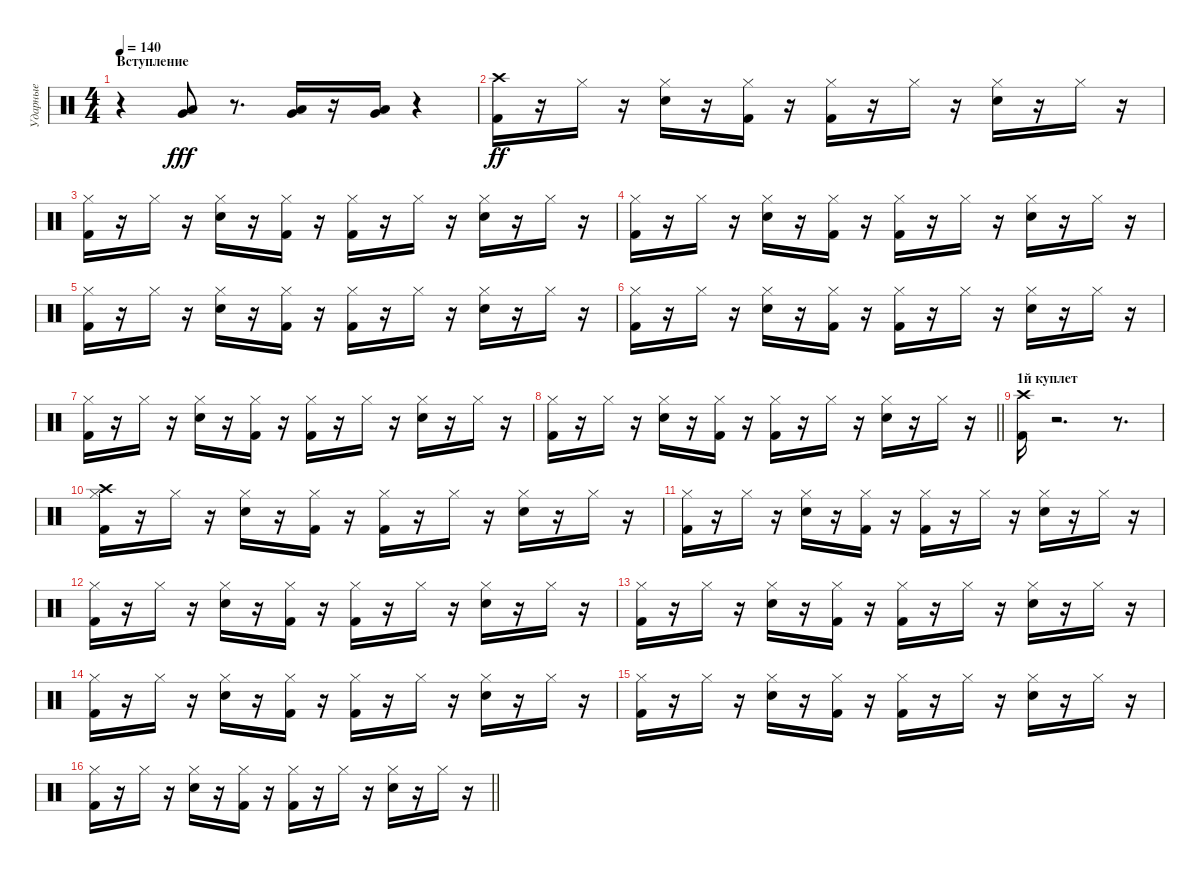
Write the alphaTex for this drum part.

\track ("Ударные" "Ударные") {instrument percussion}
\staff {score}
\articulation defaults
\ts (4 4)
\section ("" "Вступление")
\tempo 140
\clef neutral
\ks c
r.4{dy fff} ("Very Low Tom (hit)" "Low Floor Tom (hit)").8 r.8{d} ("Very Low Tom (hit)" "Low Floor Tom (hit)").16 r.16 ("Very Low Tom (hit)" "Low Floor Tom (hit)").16 r.4 |
("Crash high (hit)" "Kick (hit) 2").16{dy ff} r.16 "Hi-Hat (closed)".16 r.16 ("Hi-Hat (closed)" "Snare (hit) 2").16 r.16 ("Hi-Hat (closed)" "Kick (hit) 2").16 r.16 ("Hi-Hat (closed)" "Kick (hit) 2").16 r.16 "Hi-Hat (closed)".16 r.16 ("Hi-Hat (closed)" "Snare (hit) 2").16 r.16 "Hi-Hat (closed)".16 r.16 |
("Hi-Hat (closed)" "Kick (hit) 2").16 r.16 "Hi-Hat (closed)".16 r.16 ("Hi-Hat (closed)" "Snare (hit) 2").16 r.16 ("Hi-Hat (closed)" "Kick (hit) 2").16 r.16 ("Hi-Hat (closed)" "Kick (hit) 2").16 r.16 "Hi-Hat (closed)".16 r.16 ("Hi-Hat (closed)" "Snare (hit) 2").16 r.16 "Hi-Hat (closed)".16 r.16 |
("Hi-Hat (closed)" "Kick (hit) 2").16 r.16 "Hi-Hat (closed)".16 r.16 ("Hi-Hat (closed)" "Snare (hit) 2").16 r.16 ("Hi-Hat (closed)" "Kick (hit) 2").16 r.16 ("Hi-Hat (closed)" "Kick (hit) 2").16 r.16 "Hi-Hat (closed)".16 r.16 ("Hi-Hat (closed)" "Snare (hit) 2").16 r.16 "Hi-Hat (closed)".16 r.16 |
("Hi-Hat (closed)" "Kick (hit) 2").16 r.16 "Hi-Hat (closed)".16 r.16 ("Hi-Hat (closed)" "Snare (hit) 2").16 r.16 ("Hi-Hat (closed)" "Kick (hit) 2").16 r.16 ("Hi-Hat (closed)" "Kick (hit) 2").16 r.16 "Hi-Hat (closed)".16 r.16 ("Hi-Hat (closed)" "Snare (hit) 2").16 r.16 "Hi-Hat (closed)".16 r.16 |
("Hi-Hat (closed)" "Kick (hit) 2").16 r.16 "Hi-Hat (closed)".16 r.16 ("Hi-Hat (closed)" "Snare (hit) 2").16 r.16 ("Hi-Hat (closed)" "Kick (hit) 2").16 r.16 ("Hi-Hat (closed)" "Kick (hit) 2").16 r.16 "Hi-Hat (closed)".16 r.16 ("Hi-Hat (closed)" "Snare (hit) 2").16 r.16 "Hi-Hat (closed)".16 r.16 |
("Hi-Hat (closed)" "Kick (hit) 2").16 r.16 "Hi-Hat (closed)".16 r.16 ("Hi-Hat (closed)" "Snare (hit) 2").16 r.16 ("Hi-Hat (closed)" "Kick (hit) 2").16 r.16 ("Hi-Hat (closed)" "Kick (hit) 2").16 r.16 "Hi-Hat (closed)".16 r.16 ("Hi-Hat (closed)" "Snare (hit) 2").16 r.16 "Hi-Hat (closed)".16 r.16 |
\barLineRight lightlight
("Hi-Hat (closed)" "Kick (hit) 2").16 r.16 "Hi-Hat (closed)".16 r.16 ("Hi-Hat (closed)" "Snare (hit) 2").16 r.16 ("Hi-Hat (closed)" "Kick (hit) 2").16 r.16 ("Hi-Hat (closed)" "Kick (hit) 2").16 r.16 "Hi-Hat (closed)".16 r.16 ("Hi-Hat (closed)" "Snare (hit) 2").16 r.16 "Hi-Hat (closed)".16 r.16 |
\section ("" "1й куплет")
("Crash high (hit)" "Kick (hit) 2").16 r.2{d} r.8{d} |
("Hi-Hat (closed)" "Kick (hit) 2" "Crash high (hit)").16 r.16 "Hi-Hat (closed)".16 r.16 ("Hi-Hat (closed)" "Snare (hit) 2").16 r.16 ("Hi-Hat (closed)" "Kick (hit) 2").16 r.16 ("Hi-Hat (closed)" "Kick (hit) 2").16 r.16 "Hi-Hat (closed)".16 r.16 ("Hi-Hat (closed)" "Snare (hit) 2").16 r.16 "Hi-Hat (closed)".16 r.16 |
("Hi-Hat (closed)" "Kick (hit) 2").16 r.16 "Hi-Hat (closed)".16 r.16 ("Hi-Hat (closed)" "Snare (hit) 2").16 r.16 ("Hi-Hat (closed)" "Kick (hit) 2").16 r.16 ("Hi-Hat (closed)" "Kick (hit) 2").16 r.16 "Hi-Hat (closed)".16 r.16 ("Hi-Hat (closed)" "Snare (hit) 2").16 r.16 "Hi-Hat (closed)".16 r.16 |
("Hi-Hat (closed)" "Kick (hit) 2").16 r.16 "Hi-Hat (closed)".16 r.16 ("Hi-Hat (closed)" "Snare (hit) 2").16 r.16 ("Hi-Hat (closed)" "Kick (hit) 2").16 r.16 ("Hi-Hat (closed)" "Kick (hit) 2").16 r.16 "Hi-Hat (closed)".16 r.16 ("Hi-Hat (closed)" "Snare (hit) 2").16 r.16 "Hi-Hat (closed)".16 r.16 |
("Hi-Hat (closed)" "Kick (hit) 2").16 r.16 "Hi-Hat (closed)".16 r.16 ("Hi-Hat (closed)" "Snare (hit) 2").16 r.16 ("Hi-Hat (closed)" "Kick (hit) 2").16 r.16 ("Hi-Hat (closed)" "Kick (hit) 2").16 r.16 "Hi-Hat (closed)".16 r.16 ("Hi-Hat (closed)" "Snare (hit) 2").16 r.16 "Hi-Hat (closed)".16 r.16 |
("Hi-Hat (closed)" "Kick (hit) 2").16 r.16 "Hi-Hat (closed)".16 r.16 ("Hi-Hat (closed)" "Snare (hit) 2").16 r.16 ("Hi-Hat (closed)" "Kick (hit) 2").16 r.16 ("Hi-Hat (closed)" "Kick (hit) 2").16 r.16 "Hi-Hat (closed)".16 r.16 ("Hi-Hat (closed)" "Snare (hit) 2").16 r.16 "Hi-Hat (closed)".16 r.16 |
("Hi-Hat (closed)" "Kick (hit) 2").16 r.16 "Hi-Hat (closed)".16 r.16 ("Hi-Hat (closed)" "Snare (hit) 2").16 r.16 ("Hi-Hat (closed)" "Kick (hit) 2").16 r.16 ("Hi-Hat (closed)" "Kick (hit) 2").16 r.16 "Hi-Hat (closed)".16 r.16 ("Hi-Hat (closed)" "Snare (hit) 2").16 r.16 "Hi-Hat (closed)".16 r.16 |
\barLineRight lightlight
("Hi-Hat (closed)" "Kick (hit) 2").16 r.16 "Hi-Hat (closed)".16 r.16 ("Hi-Hat (closed)" "Snare (hit) 2").16 r.16 ("Hi-Hat (closed)" "Kick (hit) 2").16 r.16 ("Hi-Hat (closed)" "Kick (hit) 2").16 r.16 "Hi-Hat (closed)".16 r.16 ("Hi-Hat (closed)" "Snare (hit) 2").16 r.16 "Hi-Hat (closed)".16 r.16
